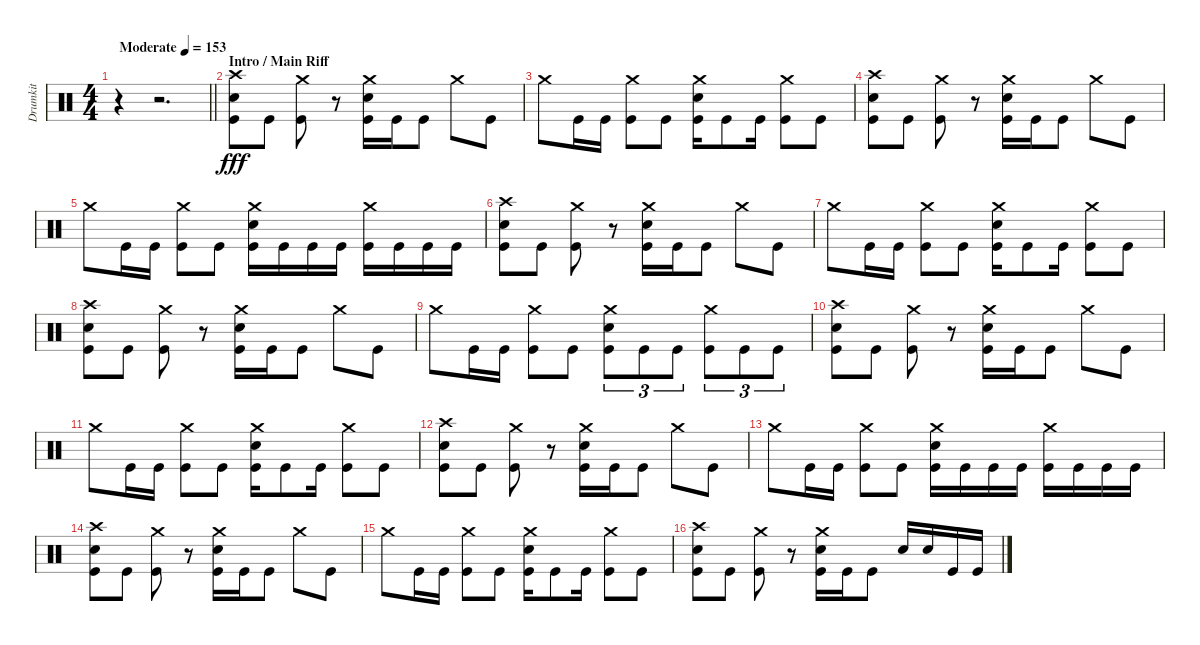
\track ("Drumkit" "Drumkit") {instrument percussion}
\staff {score}
\articulation defaults
\ts (4 4)
\tempo (153 "Moderate")
\clef neutral
\barLineRight lightlight
\ks c
r.4{dy fff} r.2{d} |
\section ("" "Intro / Main Riff")
("Crash high (hit)" "Snare (hit) 2" "Kick (hit)").8 "Kick (hit)".8 ("Crash medium (hit)" "Kick (hit)").8 r.8 ("Snare (hit) 2" "Crash medium (hit)" "Kick (hit)").16 "Kick (hit)".16 "Kick (hit)".8 "Crash medium (hit)".8 "Kick (hit)".8 |
"Crash medium (hit)".8 "Kick (hit)".16 "Kick (hit)".16 ("Crash medium (hit)" "Kick (hit)").8 "Kick (hit)".8 ("Snare (hit) 2" "Crash medium (hit)" "Kick (hit)").16 "Kick (hit)".8 "Kick (hit)".16 ("Crash medium (hit)" "Kick (hit)").8 "Kick (hit)".8 |
("Crash high (hit)" "Snare (hit) 2" "Kick (hit)").8 "Kick (hit)".8 ("Crash medium (hit)" "Kick (hit)").8 r.8 ("Snare (hit) 2" "Crash medium (hit)" "Kick (hit)").16 "Kick (hit)".16 "Kick (hit)".8 "Crash medium (hit)".8 "Kick (hit)".8 |
"Crash medium (hit)".8 "Kick (hit)".16 "Kick (hit)".16 ("Crash medium (hit)" "Kick (hit)").8 "Kick (hit)".8 ("Snare (hit) 2" "Crash medium (hit)" "Kick (hit)").16 "Kick (hit)".16 "Kick (hit)".16 "Kick (hit)".16 ("Crash medium (hit)" "Kick (hit)").16 "Kick (hit)".16 "Kick (hit)".16 "Kick (hit)".16 |
("Crash high (hit)" "Snare (hit) 2" "Kick (hit)").8 "Kick (hit)".8 ("Crash medium (hit)" "Kick (hit)").8 r.8 ("Snare (hit) 2" "Crash medium (hit)" "Kick (hit)").16 "Kick (hit)".16 "Kick (hit)".8 "Crash medium (hit)".8 "Kick (hit)".8 |
"Crash medium (hit)".8 "Kick (hit)".16 "Kick (hit)".16 ("Crash medium (hit)" "Kick (hit)").8 "Kick (hit)".8 ("Snare (hit) 2" "Crash medium (hit)" "Kick (hit)").16 "Kick (hit)".8 "Kick (hit)".16 ("Crash medium (hit)" "Kick (hit)").8 "Kick (hit)".8 |
("Crash high (hit)" "Snare (hit) 2" "Kick (hit)").8 "Kick (hit)".8 ("Crash medium (hit)" "Kick (hit)").8 r.8 ("Snare (hit) 2" "Crash medium (hit)" "Kick (hit)").16 "Kick (hit)".16 "Kick (hit)".8 "Crash medium (hit)".8 "Kick (hit)".8 |
"Crash medium (hit)".8 "Kick (hit)".16 "Kick (hit)".16 ("Crash medium (hit)" "Kick (hit)").8 "Kick (hit)".8 ("Snare (hit) 2" "Crash medium (hit)" "Kick (hit)").8{tu (3 2)} "Kick (hit)".8{tu (3 2)} "Kick (hit)".8{tu (3 2)} ("Crash medium (hit)" "Kick (hit)").8{tu (3 2)} "Kick (hit)".8{tu (3 2)} "Kick (hit)".8{tu (3 2)} |
("Crash high (hit)" "Snare (hit) 2" "Kick (hit)").8 "Kick (hit)".8 ("Crash medium (hit)" "Kick (hit)").8 r.8 ("Snare (hit) 2" "Crash medium (hit)" "Kick (hit)").16 "Kick (hit)".16 "Kick (hit)".8 "Crash medium (hit)".8 "Kick (hit)".8 |
"Crash medium (hit)".8 "Kick (hit)".16 "Kick (hit)".16 ("Crash medium (hit)" "Kick (hit)").8 "Kick (hit)".8 ("Snare (hit) 2" "Crash medium (hit)" "Kick (hit)").16 "Kick (hit)".8 "Kick (hit)".16 ("Crash medium (hit)" "Kick (hit)").8 "Kick (hit)".8 |
("Crash high (hit)" "Snare (hit) 2" "Kick (hit)").8 "Kick (hit)".8 ("Crash medium (hit)" "Kick (hit)").8 r.8 ("Snare (hit) 2" "Crash medium (hit)" "Kick (hit)").16 "Kick (hit)".16 "Kick (hit)".8 "Crash medium (hit)".8 "Kick (hit)".8 |
"Crash medium (hit)".8 "Kick (hit)".16 "Kick (hit)".16 ("Crash medium (hit)" "Kick (hit)").8 "Kick (hit)".8 ("Snare (hit) 2" "Crash medium (hit)" "Kick (hit)").16 "Kick (hit)".16 "Kick (hit)".16 "Kick (hit)".16 ("Crash medium (hit)" "Kick (hit)").16 "Kick (hit)".16 "Kick (hit)".16 "Kick (hit)".16 |
("Crash high (hit)" "Snare (hit) 2" "Kick (hit)").8 "Kick (hit)".8 ("Crash medium (hit)" "Kick (hit)").8 r.8 ("Snare (hit) 2" "Crash medium (hit)" "Kick (hit)").16 "Kick (hit)".16 "Kick (hit)".8 "Crash medium (hit)".8 "Kick (hit)".8 |
"Crash medium (hit)".8 "Kick (hit)".16 "Kick (hit)".16 ("Crash medium (hit)" "Kick (hit)").8 "Kick (hit)".8 ("Snare (hit) 2" "Crash medium (hit)" "Kick (hit)").16 "Kick (hit)".8 "Kick (hit)".16 ("Crash medium (hit)" "Kick (hit)").8 "Kick (hit)".8 |
("Crash high (hit)" "Snare (hit) 2" "Kick (hit)").8 "Kick (hit)".8 ("Crash medium (hit)" "Kick (hit)").8 r.8 ("Snare (hit) 2" "Crash medium (hit)" "Kick (hit)").16 "Kick (hit)".16 "Kick (hit)".8 "Snare (hit) 2".16 "Snare (hit) 2".16 "Kick (hit)".16 "Kick (hit)".16
